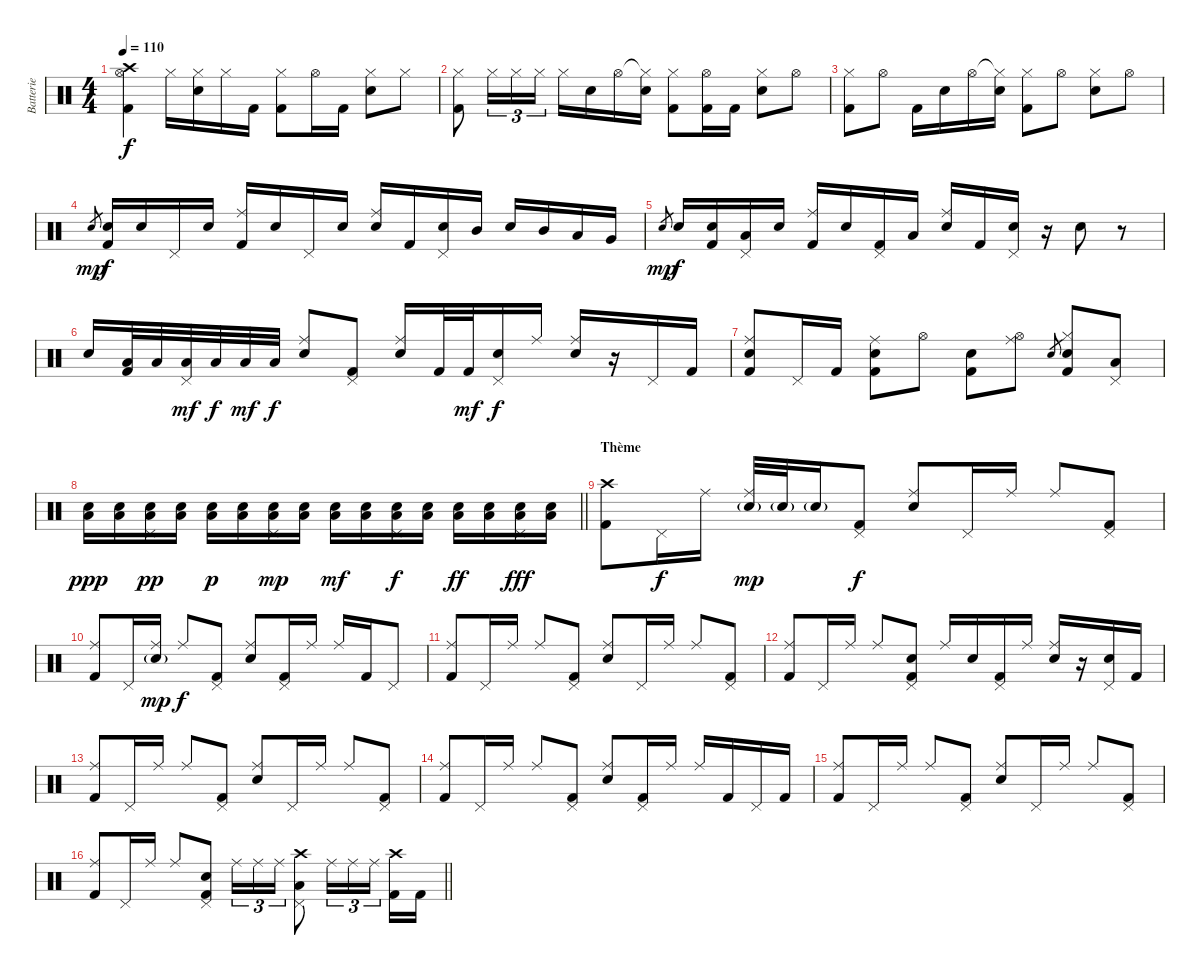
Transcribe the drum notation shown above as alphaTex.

\track ("Batterie" "Batterie") {instrument percussion}
\staff {score}
\articulation defaults
\ts (4 4)
\tempo 110
\clef neutral
\ks c
("Crash high (hit)" "Hi-Hat (open)" "Kick (hit) 2").4{dy f} "Hi-Hat (closed)".16 ("Hi-Hat (closed)" "Snare (hit) 2").16 "Hi-Hat (closed)".16 "Kick (hit) 2".16 ("Hi-Hat (closed)" "Kick (hit) 2").8 "Hi-Hat (open)".16 "Kick (hit) 2".16 ("Hi-Hat (closed)" "Snare (hit) 2").8 "Hi-Hat (closed)".8 |
("Hi-Hat (closed)" "Kick (hit) 2").8 "Hi-Hat (closed)".16{tu (3 2)} "Hi-Hat (closed)".16{tu (3 2)} "Hi-Hat (closed)".16{tu (3 2)} "Hi-Hat (closed)".16 "Snare (hit) 2".16 "Hi-Hat (open)".16 ("Hi-Hat (closed)"{t} "Snare (hit) 2").16 ("Hi-Hat (closed)" "Kick (hit) 2").8 ("Hi-Hat (open)" "Kick (hit) 2").16 "Kick (hit) 2".16 ("Hi-Hat (closed)" "Snare (hit) 2").8 "Hi-Hat (open)".8 |
("Hi-Hat (closed)" "Kick (hit) 2").8 "Hi-Hat (open)".8 "Kick (hit) 2".16 "Snare (hit) 2".16 "Hi-Hat (open)".16 ("Hi-Hat (closed)"{t} "Snare (hit) 2").16 ("Hi-Hat (closed)" "Kick (hit) 2").8 "Hi-Hat (open)".8 ("Hi-Hat (closed)" "Snare (hit) 2").8 "Hi-Hat (open)".8 |
"Snare (hit) 2".8{gr dy mp} ("Snare (hit) 2" "Kick (hit) 2").16{dy f} "Snare (hit) 2".16 "Pedal Hi-Hat (hit)".16 "Snare (hit) 2".16 ("Ride (middle)" "Kick (hit) 2").16 "Snare (hit) 2".16 "Pedal Hi-Hat (hit)".16 "Snare (hit) 2".16 ("Ride (middle)" "Snare (hit) 2").16 "Kick (hit) 2".16 ("Pedal Hi-Hat (hit)" "Snare (hit) 2").16 "Mid Tom (hit)".16 "Snare (hit) 2".16 "Mid Tom (hit)".16 "Low Tom (hit)".16 "Very Low Tom (hit)".16 |
"Snare (hit) 2".8{gr dy mp} "Snare (hit) 2".16{dy f} ("Snare (hit) 2" "Kick (hit) 2").16 ("Pedal Hi-Hat (hit)" "Low Tom (hit)").16 "Snare (hit) 2".16 ("Ride (middle)" "Kick (hit) 2").16 "Snare (hit) 2".16 ("Pedal Hi-Hat (hit)" "Kick (hit) 2").16 "Low Tom (hit)".16 ("Ride (middle)" "Snare (hit) 2").16 "Kick (hit) 2".16 ("Pedal Hi-Hat (hit)" "Snare (hit) 2").16 r.16 "Snare (hit) 2".8 r.8 |
"Snare (hit) 2".16 ("Low Tom (hit)" "Kick (hit) 2").32 "Low Tom (hit)".32 ("Pedal Hi-Hat (hit)" "Low Tom (hit)").32{dy mf} "Low Tom (hit)".32{dy f} "Low Tom (hit)".32{dy mf} "Low Tom (hit)".32{dy f} ("Ride (middle)" "Snare (hit) 2").8 ("Pedal Hi-Hat (hit)" "Kick (hit) 2").8 ("Ride (middle)" "Snare (hit) 2").16 "Kick (hit) 2".32 "Kick (hit) 2".32{dy mf} ("Pedal Hi-Hat (hit)" "Snare (hit) 2").16{dy f} "Ride (middle)".16 ("Ride (middle)" "Snare (hit) 2").16 r.16 "Pedal Hi-Hat (hit)".16 "Kick (hit) 2".16 |
("Ride (middle)" "Snare (hit) 2" "Kick (hit) 2").8 "Pedal Hi-Hat (hit)".16 "Kick (hit) 2".16 ("Ride (middle)" "Snare (hit) 2" "Kick (hit) 2").8 "Hi-Hat (open)".8 ("Snare (hit) 2" "Kick (hit) 2").8 ("Ride (middle)" "Hi-Hat (open)").8 "Snare (hit) 2".8{gr} ("Hi-Hat (closed)" "Snare (hit) 2" "Kick (hit) 2").8 ("Pedal Hi-Hat (hit)" "Low Tom (hit)").8 |
\barLineRight lightlight
("Snare (hit) 2" "Low Floor Tom (hit)").16{dy ppp} ("Snare (hit) 2" "Low Floor Tom (hit)").16 ("Pedal Hi-Hat (hit)" "Snare (hit) 2" "Low Floor Tom (hit)").16{dy pp} ("Snare (hit) 2" "Low Floor Tom (hit)").16 ("Snare (hit) 2" "Low Floor Tom (hit)").16{dy p} ("Snare (hit) 2" "Low Floor Tom (hit)").16 ("Pedal Hi-Hat (hit)" "Snare (hit) 2" "Low Floor Tom (hit)").16{dy mp} ("Snare (hit) 2" "Low Floor Tom (hit)").16 ("Snare (hit) 2" "Low Floor Tom (hit)").16{dy mf} ("Snare (hit) 2" "Low Floor Tom (hit)").16 ("Pedal Hi-Hat (hit)" "Snare (hit) 2" "Low Floor Tom (hit)").16{dy f} ("Snare (hit) 2" "Low Floor Tom (hit)").16 ("Snare (hit) 2" "Low Floor Tom (hit)").16{dy ff} ("Snare (hit) 2" "Low Floor Tom (hit)").16 ("Pedal Hi-Hat (hit)" "Snare (hit) 2" "Low Floor Tom (hit)").16{dy fff} ("Snare (hit) 2" "Low Floor Tom (hit)").16 |
\section ("" "Thème")
("Crash high (hit)" "Kick (hit) 2").8 "Pedal Hi-Hat (hit)".16{dy f} "Ride (middle)".16 ("Ride (middle)" "Snare (hit) 2"{g}).32{dy mp} "Snare (hit) 2"{g}.32 "Snare (hit) 2"{g}.16 ("Pedal Hi-Hat (hit)" "Kick (hit) 2").8{dy f} ("Ride (middle)" "Snare (hit) 2").8 "Pedal Hi-Hat (hit)".16 "Ride (middle)".16 "Ride (middle)".8 ("Pedal Hi-Hat (hit)" "Kick (hit) 2").8 |
("Ride (middle)" "Kick (hit) 2").8 "Pedal Hi-Hat (hit)".16 ("Ride (middle)" "Snare (hit) 2"{g}).16{dy mp} "Ride (middle)".8{dy f} ("Pedal Hi-Hat (hit)" "Kick (hit) 2").8 ("Ride (middle)" "Snare (hit) 2").8 ("Pedal Hi-Hat (hit)" "Kick (hit) 2").16 "Ride (middle)".16 "Ride (middle)".16 "Kick (hit) 2".16 "Pedal Hi-Hat (hit)".8 |
("Ride (middle)" "Kick (hit) 2").8 "Pedal Hi-Hat (hit)".16 "Ride (middle)".16 "Ride (middle)".8 ("Pedal Hi-Hat (hit)" "Kick (hit) 2").8 ("Ride (middle)" "Snare (hit) 2").8 "Pedal Hi-Hat (hit)".16 "Ride (middle)".16 "Ride (middle)".8 ("Pedal Hi-Hat (hit)" "Kick (hit) 2").8 |
("Ride (middle)" "Kick (hit) 2").8 "Pedal Hi-Hat (hit)".16 "Ride (middle)".16 "Ride (middle)".8 ("Pedal Hi-Hat (hit)" "Snare (hit) 2" "Kick (hit) 2").8 "Ride (middle)".16 "Snare (hit) 2".16 ("Pedal Hi-Hat (hit)" "Kick (hit) 2").16 "Ride (middle)".16 ("Ride (middle)" "Snare (hit) 2").16 r.16 ("Pedal Hi-Hat (hit)" "Snare (hit) 2").16 "Kick (hit) 2".16 |
("Ride (middle)" "Kick (hit) 2").8 "Pedal Hi-Hat (hit)".16 "Ride (middle)".16 "Ride (middle)".8 ("Pedal Hi-Hat (hit)" "Kick (hit) 2").8 ("Ride (middle)" "Snare (hit) 2").8 "Pedal Hi-Hat (hit)".16 "Ride (middle)".16 "Ride (middle)".8 ("Pedal Hi-Hat (hit)" "Kick (hit) 2").8 |
("Ride (middle)" "Kick (hit) 2").8 "Pedal Hi-Hat (hit)".16 "Ride (middle)".16 "Ride (middle)".8 ("Pedal Hi-Hat (hit)" "Kick (hit) 2").8 ("Ride (middle)" "Snare (hit) 2").8 ("Pedal Hi-Hat (hit)" "Kick (hit) 2").16 "Ride (middle)".16 "Ride (middle)".16 "Kick (hit) 2".16 "Pedal Hi-Hat (hit)".16 "Kick (hit) 2".16 |
("Ride (middle)" "Kick (hit) 2").8 "Pedal Hi-Hat (hit)".16 "Ride (middle)".16 "Ride (middle)".8 ("Pedal Hi-Hat (hit)" "Kick (hit) 2").8 ("Ride (middle)" "Snare (hit) 2").8 "Pedal Hi-Hat (hit)".16 "Ride (middle)".16 "Ride (middle)".8 ("Pedal Hi-Hat (hit)" "Kick (hit) 2").8 |
\barLineRight lightlight
("Ride (middle)" "Kick (hit) 2").8 "Pedal Hi-Hat (hit)".16 "Ride (middle)".16 "Ride (middle)".8 ("Pedal Hi-Hat (hit)" "Snare (hit) 2" "Kick (hit) 2").8 "Ride (middle)".16{tu (3 2)} "Ride (middle)".16{tu (3 2)} "Ride (middle)".16{tu (3 2)} ("Crash high (hit)" "Pedal Hi-Hat (hit)" "Low Tom (hit)").8 "Ride (middle)".16{tu (3 2)} "Ride (middle)".16{tu (3 2)} "Ride (middle)".16{tu (3 2) beam splitsecondary} ("Crash high (hit)" "Kick (hit) 2").16 "Kick (hit) 2".16
